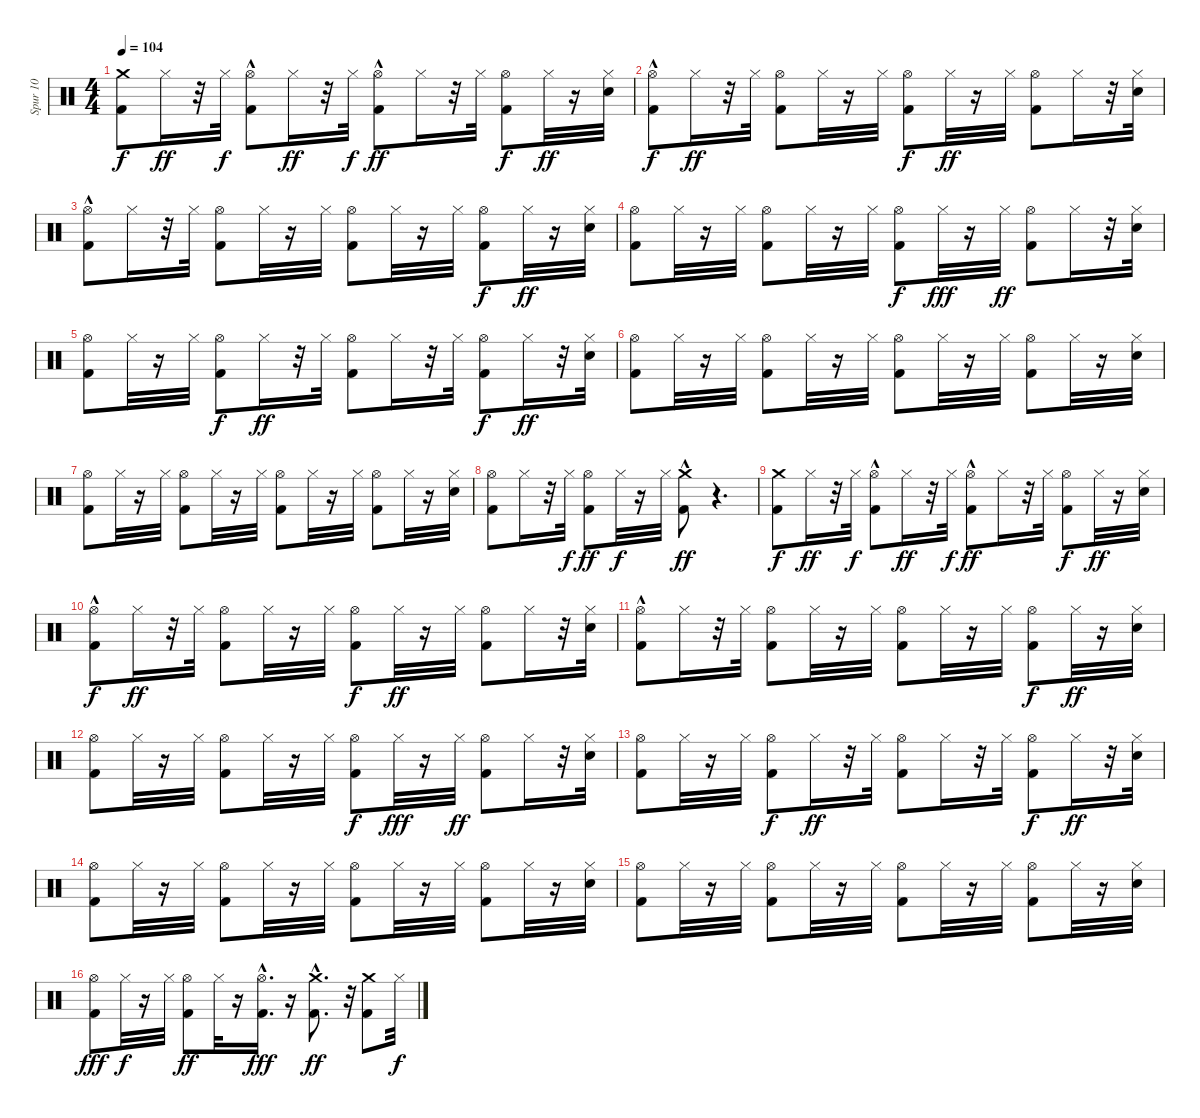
\track ("Spur 10" "Spur 10") {instrument percussion}
\staff {score}
\articulation defaults
\ts (4 4)
\tempo 104
\clef neutral
\ks c
("Kick (hit) 2" "Crash medium (hit)").8{dy f} "Hi-Hat (closed)".16{dy ff} r.32 "Hi-Hat (closed)".32{dy f} ("Kick (hit) 2" "Hi-Hat (open)"{hac}).8 "Hi-Hat (closed)".16{dy ff} r.32 "Hi-Hat (closed)".32{dy f} ("Kick (hit) 2" "Hi-Hat (open)"{hac}).8{dy ff} "Hi-Hat (closed)".16 r.32 "Hi-Hat (closed)".32 ("Kick (hit) 2" "Hi-Hat (open)").8{dy f} "Hi-Hat (closed)".32{dy ff} r.16 ("Electric Snare (hit)" "Hi-Hat (closed)").32 |
("Kick (hit) 2" "Hi-Hat (open)"{hac}).8{dy f} "Hi-Hat (closed)".16{dy ff} r.32 "Hi-Hat (closed)".32 ("Kick (hit) 2" "Hi-Hat (open)").8 "Hi-Hat (closed)".32 r.16 "Hi-Hat (closed)".32 ("Kick (hit) 2" "Hi-Hat (open)").8{dy f} "Hi-Hat (closed)".32{dy ff} r.16 "Hi-Hat (closed)".32 ("Kick (hit) 2" "Hi-Hat (open)").8 "Hi-Hat (closed)".16 r.32 ("Electric Snare (hit)" "Hi-Hat (closed)").32 |
("Kick (hit) 2" "Hi-Hat (open)"{hac}).8 "Hi-Hat (closed)".16 r.32 "Hi-Hat (closed)".32 ("Kick (hit) 2" "Hi-Hat (open)").8 "Hi-Hat (closed)".32 r.16 "Hi-Hat (closed)".32 ("Kick (hit) 2" "Hi-Hat (open)").8 "Hi-Hat (closed)".32 r.16 "Hi-Hat (closed)".32 ("Kick (hit) 2" "Hi-Hat (open)").8{dy f} "Hi-Hat (closed)".32{dy ff} r.16 ("Electric Snare (hit)" "Hi-Hat (closed)").32 |
("Kick (hit) 2" "Hi-Hat (open)").8 "Hi-Hat (closed)".32 r.16 "Hi-Hat (closed)".32 ("Kick (hit) 2" "Hi-Hat (open)").8 "Hi-Hat (closed)".32 r.16 "Hi-Hat (closed)".32 ("Kick (hit) 2" "Hi-Hat (open)").8{dy f} "Hi-Hat (closed)".32{dy fff} r.16 "Hi-Hat (closed)".32{dy ff} ("Kick (hit) 2" "Hi-Hat (open)").8 "Hi-Hat (closed)".16 r.32 ("Electric Snare (hit)" "Hi-Hat (closed)").32 |
("Kick (hit) 2" "Hi-Hat (open)").8 "Hi-Hat (closed)".32 r.16 "Hi-Hat (closed)".32 ("Kick (hit) 2" "Hi-Hat (open)").8{dy f} "Hi-Hat (closed)".16{dy ff} r.32 "Hi-Hat (closed)".32 ("Kick (hit) 2" "Hi-Hat (open)").8 "Hi-Hat (closed)".16 r.32 "Hi-Hat (closed)".32 ("Kick (hit) 2" "Hi-Hat (open)").8{dy f} "Hi-Hat (closed)".16{dy ff} r.32 ("Electric Snare (hit)" "Hi-Hat (closed)").32 |
("Kick (hit) 2" "Hi-Hat (open)").8 "Hi-Hat (closed)".32 r.16 "Hi-Hat (closed)".32 ("Kick (hit) 2" "Hi-Hat (open)").8 "Hi-Hat (closed)".32 r.16 "Hi-Hat (closed)".32 ("Kick (hit) 2" "Hi-Hat (open)").8 "Hi-Hat (closed)".32 r.16 "Hi-Hat (closed)".32 ("Kick (hit) 2" "Hi-Hat (open)").8 "Hi-Hat (closed)".32 r.16 ("Electric Snare (hit)" "Hi-Hat (closed)").32 |
("Kick (hit) 2" "Hi-Hat (open)").8 "Hi-Hat (closed)".32 r.16 "Hi-Hat (closed)".32 ("Kick (hit) 2" "Hi-Hat (open)").8 "Hi-Hat (closed)".32 r.16 "Hi-Hat (closed)".32 ("Kick (hit) 2" "Hi-Hat (open)").8 "Hi-Hat (closed)".32 r.16 "Hi-Hat (closed)".32 ("Kick (hit) 2" "Hi-Hat (open)").8 "Hi-Hat (closed)".32 r.16 ("Electric Snare (hit)" "Hi-Hat (closed)").32 |
("Kick (hit) 2" "Hi-Hat (open)").8 "Hi-Hat (closed)".16 r.32 "Hi-Hat (closed)".32{dy f} ("Kick (hit) 2" "Hi-Hat (open)").8{dy ff} "Hi-Hat (closed)".32{dy f} r.16 "Hi-Hat (closed)".32 ("Crash medium (hit)"{hac} "Kick (hit) 2").8{dy ff} r.4{d} |
("Kick (hit) 2" "Crash medium (hit)").8{dy f} "Hi-Hat (closed)".16{dy ff} r.32 "Hi-Hat (closed)".32{dy f} ("Kick (hit) 2" "Hi-Hat (open)"{hac}).8 "Hi-Hat (closed)".16{dy ff} r.32 "Hi-Hat (closed)".32{dy f} ("Kick (hit) 2" "Hi-Hat (open)"{hac}).8{dy ff} "Hi-Hat (closed)".16 r.32 "Hi-Hat (closed)".32 ("Kick (hit) 2" "Hi-Hat (open)").8{dy f} "Hi-Hat (closed)".32{dy ff} r.16 ("Electric Snare (hit)" "Hi-Hat (closed)").32 |
("Kick (hit) 2" "Hi-Hat (open)"{hac}).8{dy f} "Hi-Hat (closed)".16{dy ff} r.32 "Hi-Hat (closed)".32 ("Kick (hit) 2" "Hi-Hat (open)").8 "Hi-Hat (closed)".32 r.16 "Hi-Hat (closed)".32 ("Kick (hit) 2" "Hi-Hat (open)").8{dy f} "Hi-Hat (closed)".32{dy ff} r.16 "Hi-Hat (closed)".32 ("Kick (hit) 2" "Hi-Hat (open)").8 "Hi-Hat (closed)".16 r.32 ("Electric Snare (hit)" "Hi-Hat (closed)").32 |
("Kick (hit) 2" "Hi-Hat (open)"{hac}).8 "Hi-Hat (closed)".16 r.32 "Hi-Hat (closed)".32 ("Kick (hit) 2" "Hi-Hat (open)").8 "Hi-Hat (closed)".32 r.16 "Hi-Hat (closed)".32 ("Kick (hit) 2" "Hi-Hat (open)").8 "Hi-Hat (closed)".32 r.16 "Hi-Hat (closed)".32 ("Kick (hit) 2" "Hi-Hat (open)").8{dy f} "Hi-Hat (closed)".32{dy ff} r.16 ("Electric Snare (hit)" "Hi-Hat (closed)").32 |
("Kick (hit) 2" "Hi-Hat (open)").8 "Hi-Hat (closed)".32 r.16 "Hi-Hat (closed)".32 ("Kick (hit) 2" "Hi-Hat (open)").8 "Hi-Hat (closed)".32 r.16 "Hi-Hat (closed)".32 ("Kick (hit) 2" "Hi-Hat (open)").8{dy f} "Hi-Hat (closed)".32{dy fff} r.16 "Hi-Hat (closed)".32{dy ff} ("Kick (hit) 2" "Hi-Hat (open)").8 "Hi-Hat (closed)".16 r.32 ("Electric Snare (hit)" "Hi-Hat (closed)").32 |
("Kick (hit) 2" "Hi-Hat (open)").8 "Hi-Hat (closed)".32 r.16 "Hi-Hat (closed)".32 ("Kick (hit) 2" "Hi-Hat (open)").8{dy f} "Hi-Hat (closed)".16{dy ff} r.32 "Hi-Hat (closed)".32 ("Kick (hit) 2" "Hi-Hat (open)").8 "Hi-Hat (closed)".16 r.32 "Hi-Hat (closed)".32 ("Kick (hit) 2" "Hi-Hat (open)").8{dy f} "Hi-Hat (closed)".16{dy ff} r.32 ("Electric Snare (hit)" "Hi-Hat (closed)").32 |
("Kick (hit) 2" "Hi-Hat (open)").8 "Hi-Hat (closed)".32 r.16 "Hi-Hat (closed)".32 ("Kick (hit) 2" "Hi-Hat (open)").8 "Hi-Hat (closed)".32 r.16 "Hi-Hat (closed)".32 ("Kick (hit) 2" "Hi-Hat (open)").8 "Hi-Hat (closed)".32 r.16 "Hi-Hat (closed)".32 ("Kick (hit) 2" "Hi-Hat (open)").8 "Hi-Hat (closed)".32 r.16 ("Electric Snare (hit)" "Hi-Hat (closed)").32 |
("Kick (hit) 2" "Hi-Hat (open)").8 "Hi-Hat (closed)".32 r.16 "Hi-Hat (closed)".32 ("Kick (hit) 2" "Hi-Hat (open)").8 "Hi-Hat (closed)".32 r.16 "Hi-Hat (closed)".32 ("Kick (hit) 2" "Hi-Hat (open)").8 "Hi-Hat (closed)".32 r.16 "Hi-Hat (closed)".32 ("Kick (hit) 2" "Hi-Hat (open)").8 "Hi-Hat (closed)".32 r.16 ("Electric Snare (hit)" "Hi-Hat (closed)").32 |
("Kick (hit) 2" "Hi-Hat (open)").8{dy fff} "Hi-Hat (closed)".32{dy f} r.16 "Hi-Hat (closed)".32 ("Kick (hit) 2" "Hi-Hat (open)").8{dy ff} "Hi-Hat (closed)".32 r.16 ("Kick (hit) 2"{hac} "Hi-Hat (open)").16{d dy fff} r.16 ("Crash medium (hit)"{hac} "Kick (hit) 2"{hac}).8{d dy ff} r.32 ("Crash medium (hit)" "Kick (hit) 2").8 "Hi-Hat (closed)".32{dy f}
